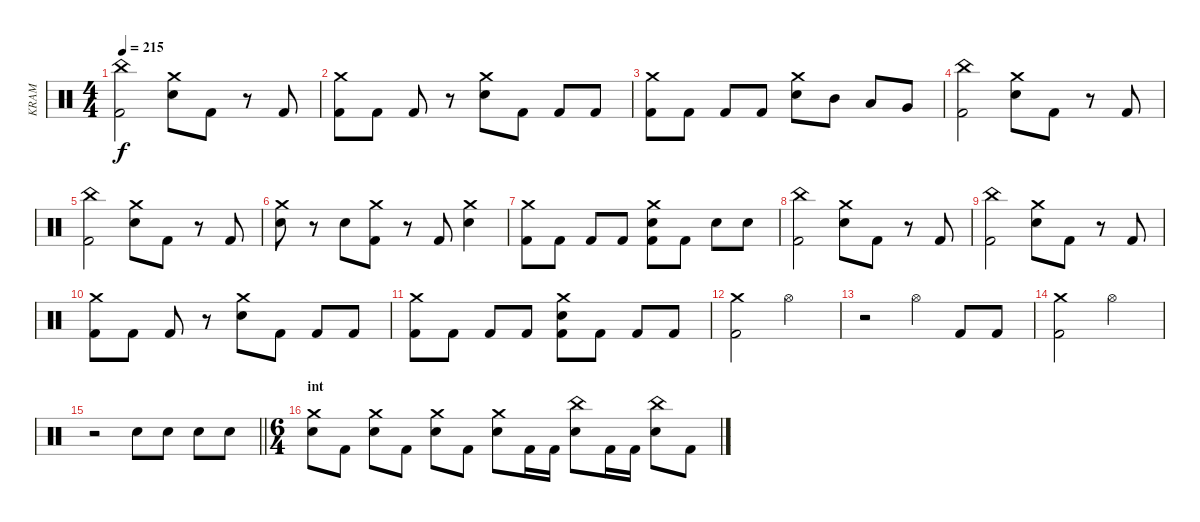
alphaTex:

\track ("KRAM" "KRAM") {instrument percussion}
\staff {score}
\articulation defaults
\ts (4 4)
\tempo 215
\clef neutral
\ks c
("Kick (hit) 2" "China (hit)").2{dy f} ("Electric Snare (hit)" "Crash medium (hit)").8 "Kick (hit) 2".8 r.8 "Kick (hit) 2".8 |
("Kick (hit) 2" "Crash medium (hit)").8 "Kick (hit) 2".8 "Kick (hit) 2".8 r.8 ("Electric Snare (hit)" "Crash medium (hit)").8 "Kick (hit) 2".8 "Kick (hit) 2".8 "Kick (hit) 2".8 |
("Kick (hit) 2" "Crash medium (hit)").8 "Kick (hit) 2".8 "Kick (hit) 2".8 "Kick (hit) 2".8 ("Electric Snare (hit)" "Crash medium (hit)").8 "Mid Tom (hit)".8 "Low Tom (hit)".8 "Very Low Tom (hit)".8 |
("Kick (hit) 2" "China (hit)").2 ("Electric Snare (hit)" "Crash medium (hit)").8 "Kick (hit) 2".8 r.8 "Kick (hit) 2".8 |
("Kick (hit) 2" "China (hit)").2 ("Electric Snare (hit)" "Crash medium (hit)").8 "Kick (hit) 2".8 r.8 "Kick (hit) 2".8 |
("Electric Snare (hit)" "Crash medium (hit)").8 r.8 "Electric Snare (hit)".8 ("Kick (hit) 2" "Crash medium (hit)").8 r.8 "Kick (hit) 2".8 ("Electric Snare (hit)" "Crash medium (hit)").4 |
("Kick (hit) 2" "Crash medium (hit)").8 "Kick (hit) 2".8 "Kick (hit) 2".8 "Kick (hit) 2".8 ("Kick (hit) 2" "Electric Snare (hit)" "Crash medium (hit)").8 "Kick (hit) 2".8 "Electric Snare (hit)".8 "Electric Snare (hit)".8 |
("Kick (hit) 2" "China (hit)").2 ("Electric Snare (hit)" "Crash medium (hit)").8 "Kick (hit) 2".8 r.8 "Kick (hit) 2".8 |
("Kick (hit) 2" "China (hit)").2 ("Electric Snare (hit)" "Crash medium (hit)").8 "Kick (hit) 2".8 r.8 "Kick (hit) 2".8 |
("Kick (hit) 2" "Crash medium (hit)").8 "Kick (hit) 2".8 "Kick (hit) 2".8 r.8 ("Electric Snare (hit)" "Crash medium (hit)").8 "Kick (hit) 2".8 "Kick (hit) 2".8 "Kick (hit) 2".8 |
("Kick (hit) 2" "Crash medium (hit)").8 "Kick (hit) 2".8 "Kick (hit) 2".8 "Kick (hit) 2".8 ("Kick (hit) 2" "Electric Snare (hit)" "Crash medium (hit)").8 "Kick (hit) 2".8 "Kick (hit) 2".8 "Kick (hit) 2".8 |
("Kick (hit) 2" "Crash medium (hit)").2 "Hi-Hat (open)".2 |
r.2 "Hi-Hat (open)".4 "Kick (hit) 2".8 "Kick (hit) 2".8 |
("Kick (hit) 2" "Crash medium (hit)").2 "Hi-Hat (open)".2 |
\barLineRight lightlight
r.2 "Electric Snare (hit)".8 "Electric Snare (hit)".8 "Electric Snare (hit)".8 "Electric Snare (hit)".8 |
\ts (6 4)
\section ("" "int")
("Electric Snare (hit)" "Crash medium (hit)").8 "Kick (hit) 2".8 ("Electric Snare (hit)" "Crash medium (hit)").8 "Kick (hit) 2".8 ("Electric Snare (hit)" "Crash medium (hit)").8 "Kick (hit) 2".8 ("Electric Snare (hit)" "Crash medium (hit)").8 "Kick (hit) 2".16 "Kick (hit) 2".16 ("Electric Snare (hit)" "China (hit)").8 "Kick (hit) 2".16 "Kick (hit) 2".16 ("Electric Snare (hit)" "China (hit)").8 "Kick (hit) 2".8
